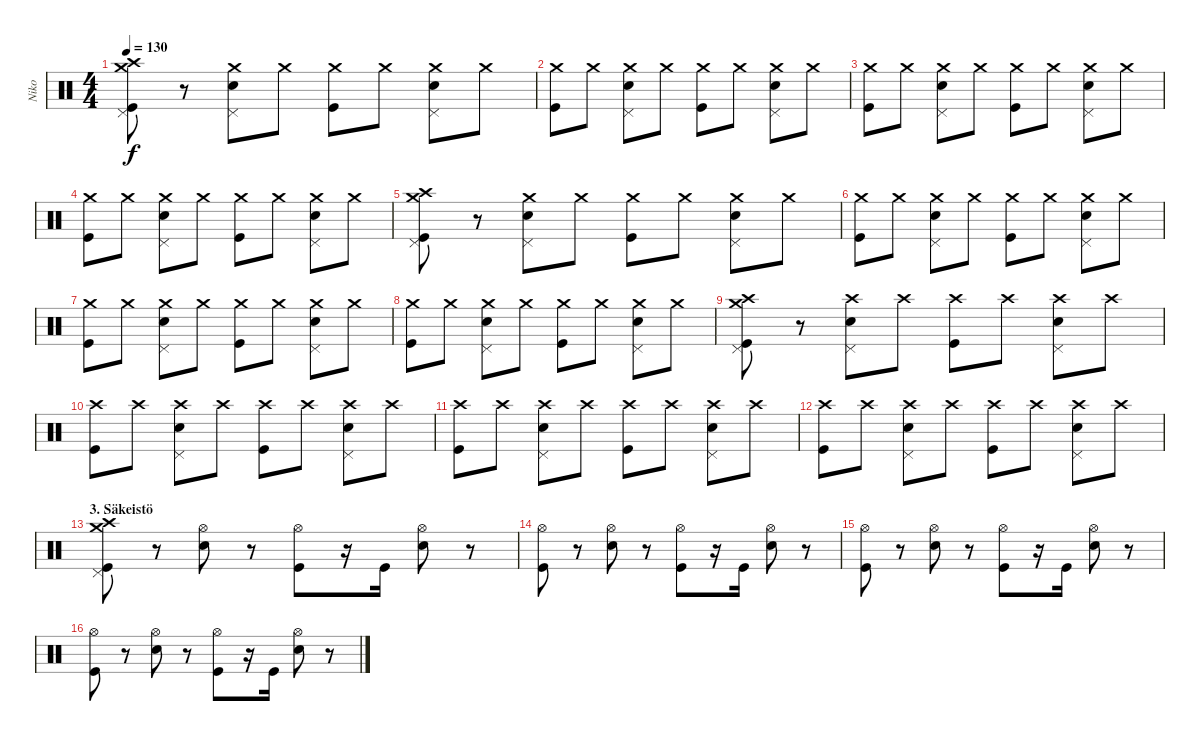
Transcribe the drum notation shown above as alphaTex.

\track ("Niko" "Niko") {instrument percussion}
\staff {score}
\articulation defaults
\ts (4 4)
\tempo 130
\clef neutral
\ks c
("Kick (hit)" "Crash medium (hit)" "Pedal Hi-Hat (hit)" "Crash high (hit)").8{dy f} r.8 ("Snare (hit) 2" "Crash medium (hit)" "Pedal Hi-Hat (hit)").8 "Crash medium (hit)".8 ("Kick (hit)" "Crash medium (hit)").8 "Crash medium (hit)".8 ("Snare (hit) 2" "Crash medium (hit)" "Pedal Hi-Hat (hit)").8 "Crash medium (hit)".8 |
("Kick (hit)" "Crash medium (hit)").8 "Crash medium (hit)".8 ("Snare (hit) 2" "Crash medium (hit)" "Pedal Hi-Hat (hit)").8 "Crash medium (hit)".8 ("Kick (hit)" "Crash medium (hit)").8 "Crash medium (hit)".8 ("Snare (hit) 2" "Crash medium (hit)" "Pedal Hi-Hat (hit)").8 "Crash medium (hit)".8 |
("Kick (hit)" "Crash medium (hit)").8 "Crash medium (hit)".8 ("Snare (hit) 2" "Crash medium (hit)" "Pedal Hi-Hat (hit)").8 "Crash medium (hit)".8 ("Kick (hit)" "Crash medium (hit)").8 "Crash medium (hit)".8 ("Snare (hit) 2" "Crash medium (hit)" "Pedal Hi-Hat (hit)").8 "Crash medium (hit)".8 |
("Kick (hit)" "Crash medium (hit)").8 "Crash medium (hit)".8 ("Snare (hit) 2" "Crash medium (hit)" "Pedal Hi-Hat (hit)").8 "Crash medium (hit)".8 ("Kick (hit)" "Crash medium (hit)").8 "Crash medium (hit)".8 ("Snare (hit) 2" "Crash medium (hit)" "Pedal Hi-Hat (hit)").8 "Crash medium (hit)".8 |
("Kick (hit)" "Crash medium (hit)" "Pedal Hi-Hat (hit)" "Crash high (hit)").8 r.8 ("Snare (hit) 2" "Crash medium (hit)" "Pedal Hi-Hat (hit)").8 "Crash medium (hit)".8 ("Kick (hit)" "Crash medium (hit)").8 "Crash medium (hit)".8 ("Snare (hit) 2" "Crash medium (hit)" "Pedal Hi-Hat (hit)").8 "Crash medium (hit)".8 |
("Kick (hit)" "Crash medium (hit)").8 "Crash medium (hit)".8 ("Snare (hit) 2" "Crash medium (hit)" "Pedal Hi-Hat (hit)").8 "Crash medium (hit)".8 ("Kick (hit)" "Crash medium (hit)").8 "Crash medium (hit)".8 ("Snare (hit) 2" "Crash medium (hit)" "Pedal Hi-Hat (hit)").8 "Crash medium (hit)".8 |
("Kick (hit)" "Crash medium (hit)").8 "Crash medium (hit)".8 ("Snare (hit) 2" "Crash medium (hit)" "Pedal Hi-Hat (hit)").8 "Crash medium (hit)".8 ("Kick (hit)" "Crash medium (hit)").8 "Crash medium (hit)".8 ("Snare (hit) 2" "Crash medium (hit)" "Pedal Hi-Hat (hit)").8 "Crash medium (hit)".8 |
("Kick (hit)" "Crash medium (hit)").8 "Crash medium (hit)".8 ("Snare (hit) 2" "Crash medium (hit)" "Pedal Hi-Hat (hit)").8 "Crash medium (hit)".8 ("Kick (hit)" "Crash medium (hit)").8 "Crash medium (hit)".8 ("Snare (hit) 2" "Crash medium (hit)" "Pedal Hi-Hat (hit)").8 "Crash medium (hit)".8 |
("Kick (hit)" "Crash medium (hit)" "Pedal Hi-Hat (hit)" "Crash high (hit)").8 r.8 ("Snare (hit) 2" "Crash high (hit)" "Pedal Hi-Hat (hit)").8 "Crash high (hit)".8 ("Kick (hit)" "Crash high (hit)").8 "Crash high (hit)".8 ("Snare (hit) 2" "Crash high (hit)" "Pedal Hi-Hat (hit)").8 "Crash high (hit)".8 |
("Kick (hit)" "Crash high (hit)").8 "Crash high (hit)".8 ("Snare (hit) 2" "Crash high (hit)" "Pedal Hi-Hat (hit)").8 "Crash high (hit)".8 ("Kick (hit)" "Crash high (hit)").8 "Crash high (hit)".8 ("Snare (hit) 2" "Crash high (hit)" "Pedal Hi-Hat (hit)").8 "Crash high (hit)".8 |
("Kick (hit)" "Crash high (hit)").8 "Crash high (hit)".8 ("Snare (hit) 2" "Crash high (hit)" "Pedal Hi-Hat (hit)").8 "Crash high (hit)".8 ("Kick (hit)" "Crash high (hit)").8 "Crash high (hit)".8 ("Snare (hit) 2" "Crash high (hit)" "Pedal Hi-Hat (hit)").8 "Crash high (hit)".8 |
("Kick (hit)" "Crash high (hit)").8 "Crash high (hit)".8 ("Snare (hit) 2" "Crash high (hit)" "Pedal Hi-Hat (hit)").8 "Crash high (hit)".8 ("Kick (hit)" "Crash high (hit)").8 "Crash high (hit)".8 ("Snare (hit) 2" "Crash high (hit)" "Pedal Hi-Hat (hit)").8 "Crash high (hit)".8 |
\section ("" "3. Säkeistö")
("Kick (hit)" "Crash medium (hit)" "Pedal Hi-Hat (hit)" "Crash high (hit)").8 r.8 ("Snare (hit) 2" "Hi-Hat (open)").8 r.8 ("Kick (hit)" "Hi-Hat (open)").8 r.16 "Kick (hit)".16 ("Snare (hit) 2" "Hi-Hat (open)").8 r.8 |
("Kick (hit)" "Hi-Hat (open)").8 r.8 ("Snare (hit) 2" "Hi-Hat (open)").8 r.8 ("Kick (hit)" "Hi-Hat (open)").8 r.16 "Kick (hit)".16 ("Snare (hit) 2" "Hi-Hat (open)").8 r.8 |
("Kick (hit)" "Hi-Hat (open)").8 r.8 ("Snare (hit) 2" "Hi-Hat (open)").8 r.8 ("Kick (hit)" "Hi-Hat (open)").8 r.16 "Kick (hit)".16 ("Snare (hit) 2" "Hi-Hat (open)").8 r.8 |
("Kick (hit)" "Hi-Hat (open)").8 r.8 ("Snare (hit) 2" "Hi-Hat (open)").8 r.8 ("Kick (hit)" "Hi-Hat (open)").8 r.16 "Kick (hit)".16 ("Snare (hit) 2" "Hi-Hat (open)").8 r.8
